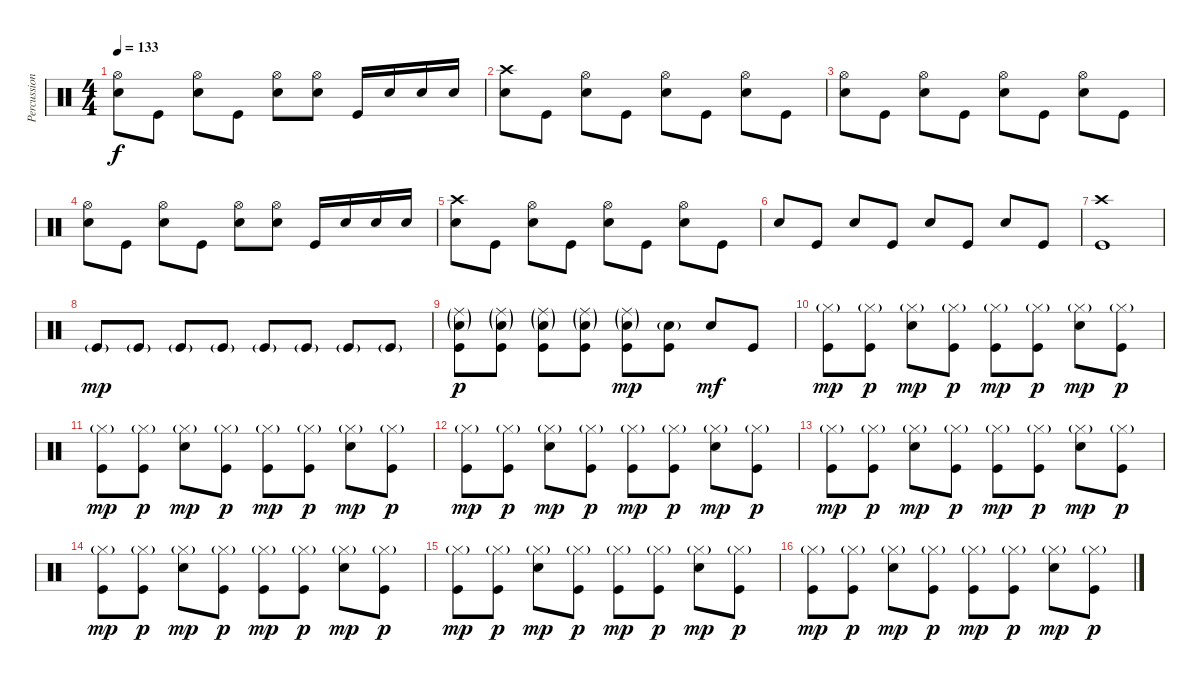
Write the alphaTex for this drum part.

\track ("Percussion" "Percussion") {instrument percussion}
\staff {score}
\articulation defaults
\ts (4 4)
\tempo 133
\clef neutral
\ks c
("Hi-Hat (open)" "Electric Snare (hit)").8{dy f} "Kick (hit)".8 ("Hi-Hat (open)" "Electric Snare (hit)").8 "Kick (hit)".8 ("Hi-Hat (open)" "Electric Snare (hit)").8 ("Hi-Hat (open)" "Electric Snare (hit)").8 "Kick (hit)".16 "Electric Snare (hit)".16 "Electric Snare (hit)".16 "Electric Snare (hit)".16 |
("Crash high (hit)" "Electric Snare (hit)").8 "Kick (hit)".8 ("Hi-Hat (open)" "Electric Snare (hit)").8 "Kick (hit)".8 ("Hi-Hat (open)" "Electric Snare (hit)").8 "Kick (hit)".8 ("Hi-Hat (open)" "Electric Snare (hit)").8 "Kick (hit)".8 |
("Hi-Hat (open)" "Electric Snare (hit)").8 "Kick (hit)".8 ("Hi-Hat (open)" "Electric Snare (hit)").8 "Kick (hit)".8 ("Hi-Hat (open)" "Electric Snare (hit)").8 "Kick (hit)".8 ("Hi-Hat (open)" "Electric Snare (hit)").8 "Kick (hit)".8 |
("Hi-Hat (open)" "Electric Snare (hit)").8 "Kick (hit)".8 ("Hi-Hat (open)" "Electric Snare (hit)").8 "Kick (hit)".8 ("Hi-Hat (open)" "Electric Snare (hit)").8 ("Hi-Hat (open)" "Electric Snare (hit)").8 "Kick (hit)".16 "Electric Snare (hit)".16 "Electric Snare (hit)".16 "Electric Snare (hit)".16 |
("Crash high (hit)" "Electric Snare (hit)").8 "Kick (hit)".8 ("Hi-Hat (open)" "Electric Snare (hit)").8 "Kick (hit)".8 ("Hi-Hat (open)" "Electric Snare (hit)").8 "Kick (hit)".8 ("Hi-Hat (open)" "Electric Snare (hit)").8 "Kick (hit)".8 |
"Electric Snare (hit)".8 "Kick (hit)".8 "Electric Snare (hit)".8 "Kick (hit)".8 "Electric Snare (hit)".8 "Kick (hit)".8 "Electric Snare (hit)".8 "Kick (hit)".8 |
("Crash high (hit)" "Kick (hit)").1 |
"Kick (hit)"{g}.8{dy mp} "Kick (hit)"{g}.8 "Kick (hit)"{g}.8 "Kick (hit)"{g}.8 "Kick (hit)"{g}.8 "Kick (hit)"{g}.8 "Kick (hit)"{g}.8 "Kick (hit)"{g}.8 |
("Ride (middle)"{g} "Electric Snare (hit)"{g} "Kick (hit)").8{dy p} ("Ride (middle)"{g} "Electric Snare (hit)"{g} "Kick (hit)").8 ("Ride (middle)"{g} "Electric Snare (hit)"{g} "Kick (hit)").8 ("Ride (middle)"{g} "Electric Snare (hit)"{g} "Kick (hit)").8 ("Ride (middle)"{g} "Electric Snare (hit)"{g} "Kick (hit)").8{dy mp} ("Electric Snare (hit)"{g} "Kick (hit)").8 "Electric Snare (hit)".8{dy mf} "Kick (hit)".8 |
("Hi-Hat (closed)"{g} "Kick (hit)").8{dy mp} ("Hi-Hat (closed)"{g} "Kick (hit)").8{dy p} ("Hi-Hat (closed)"{g} "Electric Snare (hit)").8{dy mp} ("Hi-Hat (closed)"{g} "Kick (hit)").8{dy p} ("Hi-Hat (closed)"{g} "Kick (hit)").8{dy mp} ("Hi-Hat (closed)"{g} "Kick (hit)").8{dy p} ("Hi-Hat (closed)"{g} "Electric Snare (hit)").8{dy mp} ("Hi-Hat (closed)"{g} "Kick (hit)").8{dy p} |
("Hi-Hat (closed)"{g} "Kick (hit)").8{dy mp} ("Hi-Hat (closed)"{g} "Kick (hit)").8{dy p} ("Hi-Hat (closed)"{g} "Electric Snare (hit)").8{dy mp} ("Hi-Hat (closed)"{g} "Kick (hit)").8{dy p} ("Hi-Hat (closed)"{g} "Kick (hit)").8{dy mp} ("Hi-Hat (closed)"{g} "Kick (hit)").8{dy p} ("Hi-Hat (closed)"{g} "Electric Snare (hit)").8{dy mp} ("Hi-Hat (closed)"{g} "Kick (hit)").8{dy p} |
("Hi-Hat (closed)"{g} "Kick (hit)").8{dy mp} ("Hi-Hat (closed)"{g} "Kick (hit)").8{dy p} ("Hi-Hat (closed)"{g} "Electric Snare (hit)").8{dy mp} ("Hi-Hat (closed)"{g} "Kick (hit)").8{dy p} ("Hi-Hat (closed)"{g} "Kick (hit)").8{dy mp} ("Hi-Hat (closed)"{g} "Kick (hit)").8{dy p} ("Hi-Hat (closed)"{g} "Electric Snare (hit)").8{dy mp} ("Hi-Hat (closed)"{g} "Kick (hit)").8{dy p} |
("Hi-Hat (closed)"{g} "Kick (hit)").8{dy mp} ("Hi-Hat (closed)"{g} "Kick (hit)").8{dy p} ("Hi-Hat (closed)"{g} "Electric Snare (hit)").8{dy mp} ("Hi-Hat (closed)"{g} "Kick (hit)").8{dy p} ("Hi-Hat (closed)"{g} "Kick (hit)").8{dy mp} ("Hi-Hat (closed)"{g} "Kick (hit)").8{dy p} ("Hi-Hat (closed)"{g} "Electric Snare (hit)").8{dy mp} ("Hi-Hat (closed)"{g} "Kick (hit)").8{dy p} |
("Hi-Hat (closed)"{g} "Kick (hit)").8{dy mp} ("Hi-Hat (closed)"{g} "Kick (hit)").8{dy p} ("Hi-Hat (closed)"{g} "Electric Snare (hit)").8{dy mp} ("Hi-Hat (closed)"{g} "Kick (hit)").8{dy p} ("Hi-Hat (closed)"{g} "Kick (hit)").8{dy mp} ("Hi-Hat (closed)"{g} "Kick (hit)").8{dy p} ("Hi-Hat (closed)"{g} "Electric Snare (hit)").8{dy mp} ("Hi-Hat (closed)"{g} "Kick (hit)").8{dy p} |
("Hi-Hat (closed)"{g} "Kick (hit)").8{dy mp} ("Hi-Hat (closed)"{g} "Kick (hit)").8{dy p} ("Hi-Hat (closed)"{g} "Electric Snare (hit)").8{dy mp} ("Hi-Hat (closed)"{g} "Kick (hit)").8{dy p} ("Hi-Hat (closed)"{g} "Kick (hit)").8{dy mp} ("Hi-Hat (closed)"{g} "Kick (hit)").8{dy p} ("Hi-Hat (closed)"{g} "Electric Snare (hit)").8{dy mp} ("Hi-Hat (closed)"{g} "Kick (hit)").8{dy p} |
("Hi-Hat (closed)"{g} "Kick (hit)").8{dy mp} ("Hi-Hat (closed)"{g} "Kick (hit)").8{dy p} ("Hi-Hat (closed)"{g} "Electric Snare (hit)").8{dy mp} ("Hi-Hat (closed)"{g} "Kick (hit)").8{dy p} ("Hi-Hat (closed)"{g} "Kick (hit)").8{dy mp} ("Hi-Hat (closed)"{g} "Kick (hit)").8{dy p} ("Hi-Hat (closed)"{g} "Electric Snare (hit)").8{dy mp} ("Hi-Hat (closed)"{g} "Kick (hit)").8{dy p}
